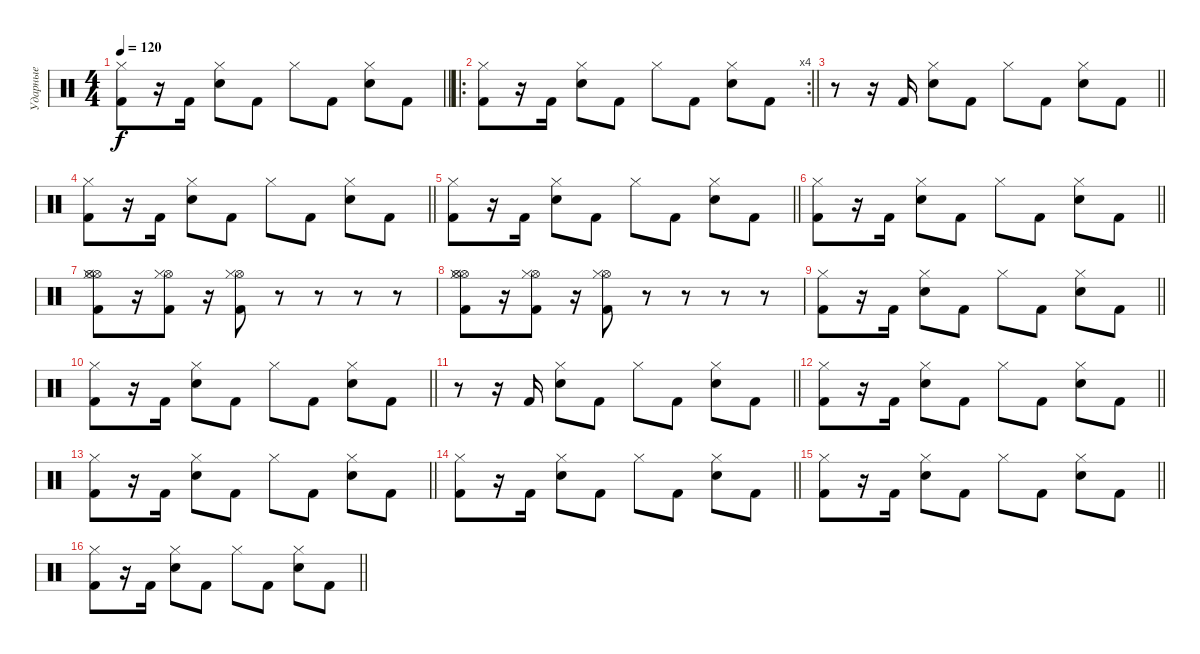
\track ("Ударные" "Ударные") {instrument percussion}
\staff {score}
\articulation defaults
\ts (4 4)
\tempo 120
\clef neutral
\barLineRight lightlight
\ks c
("Kick (hit) 2" "Hi-Hat (closed)").8{dy f} r.16 "Kick (hit) 2".16 ("Electric Snare (hit)" "Hi-Hat (closed)").8 "Kick (hit) 2".8 "Hi-Hat (closed)".8 "Kick (hit) 2".8 ("Electric Snare (hit)" "Hi-Hat (closed)").8 "Kick (hit) 2".8 |
\ro
\rc 4
\barLineRight lightlight
("Kick (hit) 2" "Hi-Hat (closed)").8 r.16 "Kick (hit) 2".16 ("Electric Snare (hit)" "Hi-Hat (closed)").8 "Kick (hit) 2".8 "Hi-Hat (closed)".8 "Kick (hit) 2".8 ("Electric Snare (hit)" "Hi-Hat (closed)").8 "Kick (hit) 2".8 |
\barLineRight lightlight
r.8 r.16 "Kick (hit) 2".16 ("Electric Snare (hit)" "Hi-Hat (closed)").8 "Kick (hit) 2".8 "Hi-Hat (closed)".8 "Kick (hit) 2".8 ("Electric Snare (hit)" "Hi-Hat (closed)").8 "Kick (hit) 2".8 |
\barLineRight lightlight
("Kick (hit) 2" "Hi-Hat (closed)").8 r.16 "Kick (hit) 2".16 ("Electric Snare (hit)" "Hi-Hat (closed)").8 "Kick (hit) 2".8 "Hi-Hat (closed)".8 "Kick (hit) 2".8 ("Electric Snare (hit)" "Hi-Hat (closed)").8 "Kick (hit) 2".8 |
\barLineRight lightlight
("Kick (hit) 2" "Hi-Hat (closed)").8 r.16 "Kick (hit) 2".16 ("Electric Snare (hit)" "Hi-Hat (closed)").8 "Kick (hit) 2".8 "Hi-Hat (closed)".8 "Kick (hit) 2".8 ("Electric Snare (hit)" "Hi-Hat (closed)").8 "Kick (hit) 2".8 |
\barLineRight lightlight
("Kick (hit) 2" "Hi-Hat (closed)").8 r.16 "Kick (hit) 2".16 ("Electric Snare (hit)" "Hi-Hat (closed)").8 "Kick (hit) 2".8 "Hi-Hat (closed)".8 "Kick (hit) 2".8 ("Electric Snare (hit)" "Hi-Hat (closed)").8 "Kick (hit) 2".8 |
("Hi-Hat (open)" "Hi-Hat (open)" "Hi-Hat (closed)" "Kick (hit) 2").8 r.16 ("Hi-Hat (open)" "Hi-Hat (closed)" "Kick (hit) 2").8 r.16 ("Hi-Hat (open)" "Hi-Hat (closed)" "Kick (hit) 2").8 r.8 r.8 r.8 r.8 |
("Hi-Hat (open)" "Hi-Hat (open)" "Hi-Hat (closed)" "Kick (hit) 2").8 r.16 ("Hi-Hat (open)" "Hi-Hat (closed)" "Kick (hit) 2").8 r.16 ("Hi-Hat (open)" "Hi-Hat (closed)" "Kick (hit) 2").8 r.8 r.8 r.8 r.8 |
\barLineRight lightlight
("Kick (hit) 2" "Hi-Hat (closed)").8 r.16 "Kick (hit) 2".16 ("Electric Snare (hit)" "Hi-Hat (closed)").8 "Kick (hit) 2".8 "Hi-Hat (closed)".8 "Kick (hit) 2".8 ("Electric Snare (hit)" "Hi-Hat (closed)").8 "Kick (hit) 2".8 |
\barLineRight lightlight
("Kick (hit) 2" "Hi-Hat (closed)").8 r.16 "Kick (hit) 2".16 ("Electric Snare (hit)" "Hi-Hat (closed)").8 "Kick (hit) 2".8 "Hi-Hat (closed)".8 "Kick (hit) 2".8 ("Electric Snare (hit)" "Hi-Hat (closed)").8 "Kick (hit) 2".8 |
\barLineRight lightlight
r.8 r.16 "Kick (hit) 2".16 ("Electric Snare (hit)" "Hi-Hat (closed)").8 "Kick (hit) 2".8 "Hi-Hat (closed)".8 "Kick (hit) 2".8 ("Electric Snare (hit)" "Hi-Hat (closed)").8 "Kick (hit) 2".8 |
\barLineRight lightlight
("Kick (hit) 2" "Hi-Hat (closed)").8 r.16 "Kick (hit) 2".16 ("Electric Snare (hit)" "Hi-Hat (closed)").8 "Kick (hit) 2".8 "Hi-Hat (closed)".8 "Kick (hit) 2".8 ("Electric Snare (hit)" "Hi-Hat (closed)").8 "Kick (hit) 2".8 |
\barLineRight lightlight
("Kick (hit) 2" "Hi-Hat (closed)").8 r.16 "Kick (hit) 2".16 ("Electric Snare (hit)" "Hi-Hat (closed)").8 "Kick (hit) 2".8 "Hi-Hat (closed)".8 "Kick (hit) 2".8 ("Electric Snare (hit)" "Hi-Hat (closed)").8 "Kick (hit) 2".8 |
\barLineRight lightlight
("Kick (hit) 2" "Hi-Hat (closed)").8 r.16 "Kick (hit) 2".16 ("Electric Snare (hit)" "Hi-Hat (closed)").8 "Kick (hit) 2".8 "Hi-Hat (closed)".8 "Kick (hit) 2".8 ("Electric Snare (hit)" "Hi-Hat (closed)").8 "Kick (hit) 2".8 |
\barLineRight lightlight
("Kick (hit) 2" "Hi-Hat (closed)").8 r.16 "Kick (hit) 2".16 ("Electric Snare (hit)" "Hi-Hat (closed)").8 "Kick (hit) 2".8 "Hi-Hat (closed)".8 "Kick (hit) 2".8 ("Electric Snare (hit)" "Hi-Hat (closed)").8 "Kick (hit) 2".8 |
\barLineRight lightlight
("Kick (hit) 2" "Hi-Hat (closed)").8 r.16 "Kick (hit) 2".16 ("Electric Snare (hit)" "Hi-Hat (closed)").8 "Kick (hit) 2".8 "Hi-Hat (closed)".8 "Kick (hit) 2".8 ("Electric Snare (hit)" "Hi-Hat (closed)").8 "Kick (hit) 2".8
